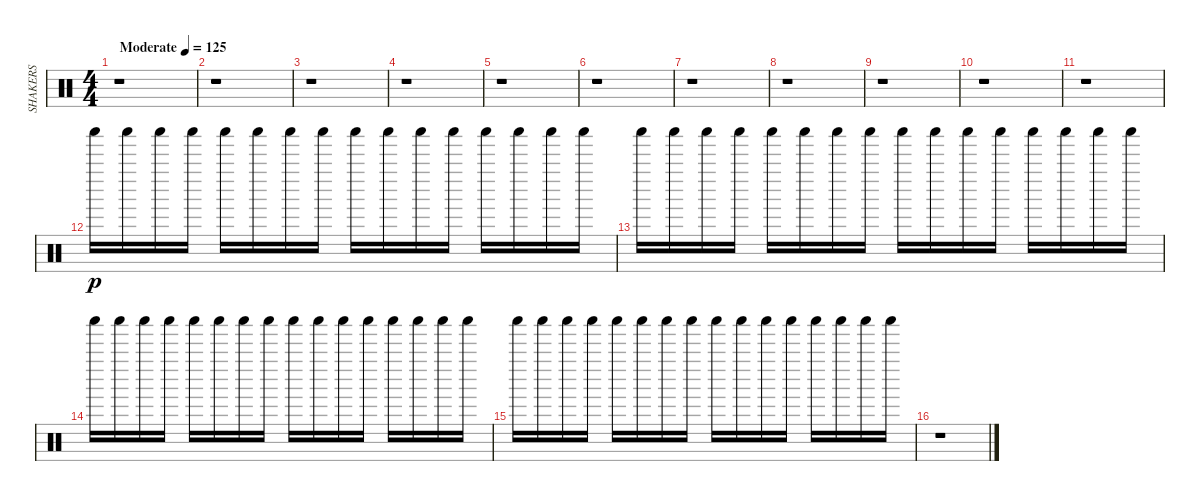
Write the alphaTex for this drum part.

\track ("SHAKERS" "SHAKERS") {instrument percussion}
\staff {score}
\articulation defaults
\ts (4 4)
\tempo (125 "Moderate")
\clef neutral
\ks c
r.1{dy p} |
r.1 |
r.1 |
r.1 |
r.1 |
r.1 |
r.1 |
r.1 |
r.1 |
r.1 |
r.1 |
"Shaker (hit)".16 "Shaker (hit)".16 "Shaker (hit)".16 "Shaker (hit)".16 "Shaker (hit)".16 "Shaker (hit)".16 "Shaker (hit)".16 "Shaker (hit)".16 "Shaker (hit)".16 "Shaker (hit)".16 "Shaker (hit)".16 "Shaker (hit)".16 "Shaker (hit)".16 "Shaker (hit)".16 "Shaker (hit)".16 "Shaker (hit)".16 |
"Shaker (hit)".16 "Shaker (hit)".16 "Shaker (hit)".16 "Shaker (hit)".16 "Shaker (hit)".16 "Shaker (hit)".16 "Shaker (hit)".16 "Shaker (hit)".16 "Shaker (hit)".16 "Shaker (hit)".16 "Shaker (hit)".16 "Shaker (hit)".16 "Shaker (hit)".16 "Shaker (hit)".16 "Shaker (hit)".16 "Shaker (hit)".16 |
"Shaker (hit)".16 "Shaker (hit)".16 "Shaker (hit)".16 "Shaker (hit)".16 "Shaker (hit)".16 "Shaker (hit)".16 "Shaker (hit)".16 "Shaker (hit)".16 "Shaker (hit)".16 "Shaker (hit)".16 "Shaker (hit)".16 "Shaker (hit)".16 "Shaker (hit)".16 "Shaker (hit)".16 "Shaker (hit)".16 "Shaker (hit)".16 |
"Shaker (hit)".16 "Shaker (hit)".16 "Shaker (hit)".16 "Shaker (hit)".16 "Shaker (hit)".16 "Shaker (hit)".16 "Shaker (hit)".16 "Shaker (hit)".16 "Shaker (hit)".16 "Shaker (hit)".16 "Shaker (hit)".16 "Shaker (hit)".16 "Shaker (hit)".16 "Shaker (hit)".16 "Shaker (hit)".16 "Shaker (hit)".16 |
r.1
